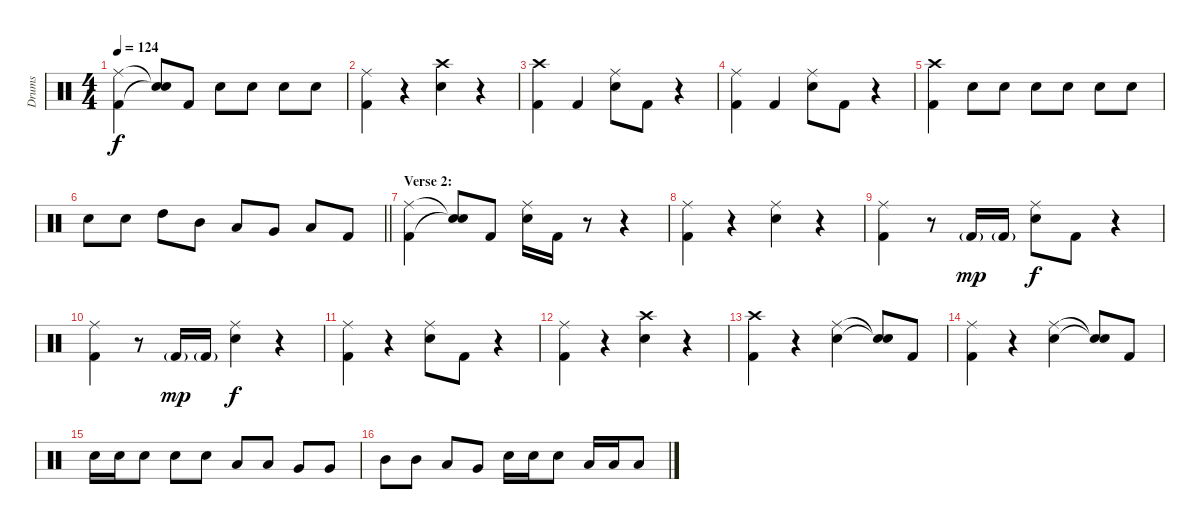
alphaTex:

\track ("Drums" "Drums") {instrument percussion}
\staff {score}
\articulation defaults
\ts (4 4)
\tempo 124
\clef neutral
\ks c
("Ride (middle)" "Kick (hit) 2").4{dy f} ("Snare (hit)"{t} "Snare (hit)"{t}).8 "Kick (hit) 2".8 "Electric Snare (hit)".8 "Electric Snare (hit)".8 "Electric Snare (hit)".8 "Electric Snare (hit)".8 |
("Ride (middle)" "Kick (hit) 2").4 r.4 ("Crash high (hit)" "Electric Snare (hit)").4 r.4 |
("Crash high (hit)" "Kick (hit) 2").4 "Kick (hit) 2".4 ("Ride (middle)" "Electric Snare (hit)").8 "Kick (hit) 2".8 r.4 |
("Ride (middle)" "Kick (hit) 2").4 "Kick (hit) 2".4 ("Ride (middle)" "Electric Snare (hit)").8 "Kick (hit) 2".8 r.4 |
("Crash high (hit)" "Kick (hit) 2").4 "Electric Snare (hit)".8 "Electric Snare (hit)".8 "Electric Snare (hit)".8 "Electric Snare (hit)".8 "Electric Snare (hit)".8 "Electric Snare (hit)".8 |
\barLineRight lightlight "Electric Snare (hit)".8 "Electric Snare (hit)".8 "High Tom (hit)".8 "Mid Tom (hit)".8 "Low Tom (hit)".8 "Very Low Tom (hit)".8 "Low Floor Tom (hit)".8 "Kick (hit) 2".8
|
\section ("" "Verse 2:")
("Ride (middle)" "Kick (hit) 2").4 ("Snare (hit)"{t} "Snare (hit)"{t}).8 "Kick (hit) 2".8 ("Ride (middle)" "Electric Snare (hit)").16 "Kick (hit) 2".16 r.8 r.4 |
("Ride (middle)" "Kick (hit) 2").4 r.4 ("Ride (middle)" "Electric Snare (hit)").4 r.4 |
("Ride (middle)" "Kick (hit) 2").4 r.8 "Kick (hit) 2"{g}.16{dy mp} "Kick (hit) 2"{g}.16 ("Ride (middle)" "Electric Snare (hit)").8{dy f} "Kick (hit) 2".8 r.4 |
("Ride (middle)" "Kick (hit) 2").4 r.8 "Kick (hit) 2"{g}.16{dy mp} "Kick (hit) 2"{g}.16 ("Ride (middle)" "Electric Snare (hit)").4{dy f} r.4 |
("Ride (middle)" "Kick (hit) 2").4 r.4 ("Ride (middle)" "Electric Snare (hit)").8 "Kick (hit) 2".8 r.4 |
("Ride (middle)" "Kick (hit) 2").4 r.4 ("Crash high (hit)" "Electric Snare (hit)").4 r.4 |
("Crash high (hit)" "Kick (hit) 2").4 r.4 ("Ride (middle)" "Electric Snare (hit)").4 ("Snare (hit)"{t} "Snare (hit)"{t}).8 "Kick (hit) 2".8 |
("Ride (middle)" "Kick (hit) 2").4 r.4 ("Ride (middle)" "Electric Snare (hit)").4 ("Snare (hit)"{t} "Snare (hit)"{t}).8 "Kick (hit) 2".8 |
"Electric Snare (hit)".16 "Electric Snare (hit)".16 "Electric Snare (hit)".8 "Electric Snare (hit)".8 "Electric Snare (hit)".8 "Low Tom (hit)".8 "Low Tom (hit)".8 "Very Low Tom (hit)".8 "Very Low Tom (hit)".8 |
"Mid Tom (hit)".8 "Mid Tom (hit)".8 "Low Tom (hit)".8 "Very Low Tom (hit)".8 "Electric Snare (hit)".16 "Electric Snare (hit)".16 "Electric Snare (hit)".8 "Low Tom (hit)".16 "Low Tom (hit)".16 "Low Tom (hit)".8
